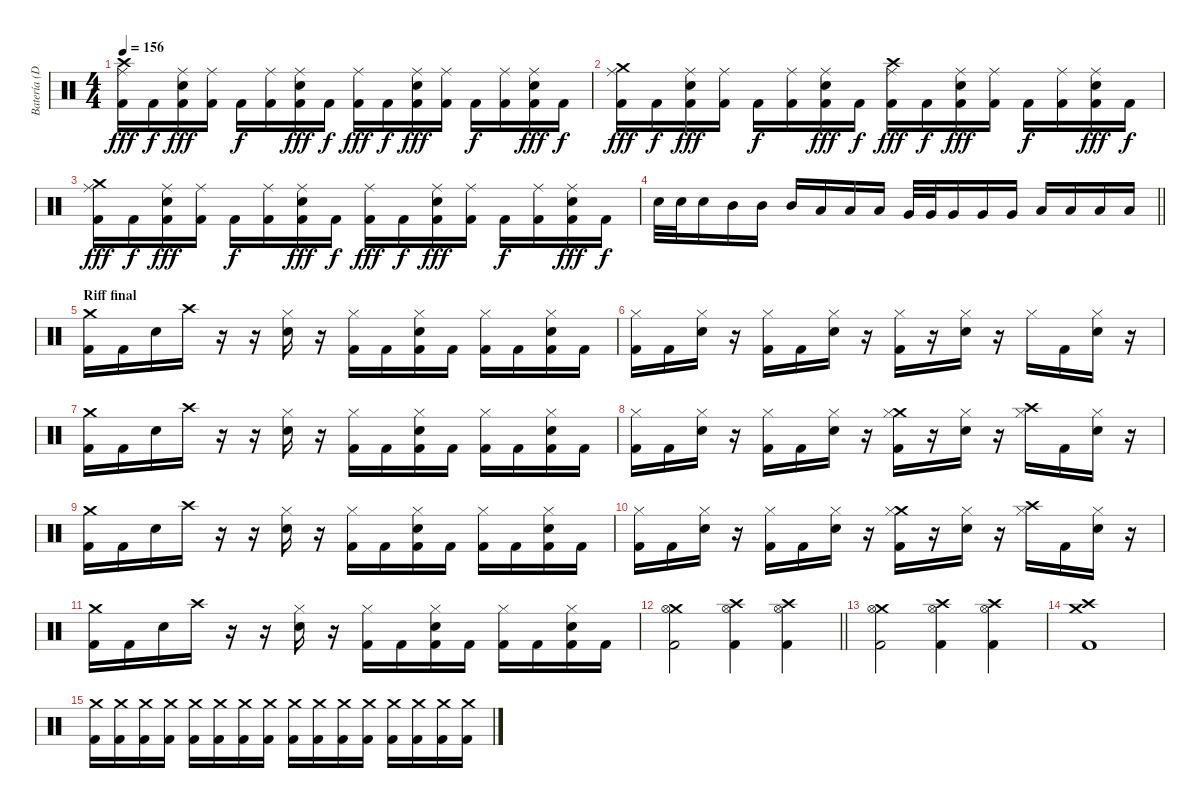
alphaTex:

\track ("Batería (Dani)" "Batería (D") {instrument percussion}
\staff {score}
\articulation defaults
\ts (4 4)
\tempo 156
\clef neutral
\ks c
("Crash high (hit)" "Ride (middle)" "Kick (hit) 2").16{dy fff} "Kick (hit) 2".16{dy f} ("Ride (middle)" "Electric Snare (hit)" "Kick (hit) 2").16{dy fff} ("Ride (middle)" "Kick (hit) 2").16 "Kick (hit) 2".16{dy f} ("Ride (middle)" "Kick (hit) 2").16 ("Ride (middle)" "Electric Snare (hit)" "Kick (hit) 2").16{dy fff} "Kick (hit) 2".16{dy f} ("Ride (middle)" "Kick (hit) 2").16{dy fff} "Kick (hit) 2".16{dy f} ("Ride (middle)" "Electric Snare (hit)" "Kick (hit) 2").16{dy fff} ("Ride (middle)" "Kick (hit) 2").16 "Kick (hit) 2".16{dy f} ("Ride (middle)" "Kick (hit) 2").16 ("Ride (middle)" "Electric Snare (hit)" "Kick (hit) 2").16{dy fff} "Kick (hit) 2".16{dy f} |
("Crash medium (hit)" "Ride (middle)" "Kick (hit) 2").16{dy fff} "Kick (hit) 2".16{dy f} ("Ride (middle)" "Electric Snare (hit)" "Kick (hit) 2").16{dy fff} ("Ride (middle)" "Kick (hit) 2").16 "Kick (hit) 2".16{dy f} ("Ride (middle)" "Kick (hit) 2").16 ("Ride (middle)" "Electric Snare (hit)" "Kick (hit) 2").16{dy fff} "Kick (hit) 2".16{dy f} ("Crash high (hit)" "Ride (middle)" "Kick (hit) 2").16{dy fff} "Kick (hit) 2".16{dy f} ("Ride (middle)" "Electric Snare (hit)" "Kick (hit) 2").16{dy fff} ("Ride (middle)" "Kick (hit) 2").16 "Kick (hit) 2".16{dy f} ("Ride (middle)" "Kick (hit) 2").16 ("Ride (middle)" "Electric Snare (hit)" "Kick (hit) 2").16{dy fff} "Kick (hit) 2".16{dy f} |
("Crash medium (hit)" "Ride (middle)" "Kick (hit) 2").16{dy fff} "Kick (hit) 2".16{dy f} ("Ride (middle)" "Electric Snare (hit)" "Kick (hit) 2").16{dy fff} ("Ride (middle)" "Kick (hit) 2").16 "Kick (hit) 2".16{dy f} ("Ride (middle)" "Kick (hit) 2").16 ("Ride (middle)" "Electric Snare (hit)" "Kick (hit) 2").16{dy fff} "Kick (hit) 2".16{dy f} ("Ride (middle)" "Kick (hit) 2").16{dy fff} "Kick (hit) 2".16{dy f} ("Ride (middle)" "Electric Snare (hit)" "Kick (hit) 2").16{dy fff} ("Ride (middle)" "Kick (hit) 2").16 "Kick (hit) 2".16{dy f} ("Ride (middle)" "Kick (hit) 2").16 ("Ride (middle)" "Electric Snare (hit)" "Kick (hit) 2").16{dy fff} "Kick (hit) 2".16{dy f} |
\barLineRight lightlight "Electric Snare (hit)".32 "Electric Snare (hit)".32 "Electric Snare (hit)".16 "Mid Tom (hit)".16 "Mid Tom (hit)".16 "Mid Tom (hit)".16 "Low Tom (hit)".16 "Low Tom (hit)".16 "Low Tom (hit)".16 "Very Low Tom (hit)".32 "Very Low Tom (hit)".32 "Very Low Tom (hit)".16 "Very Low Tom (hit)".16 "Very Low Tom (hit)".16 "Low Floor Tom (hit)".16 "Low Floor Tom (hit)".16 "Low Floor Tom (hit)".16 "Low Floor Tom (hit)".16
|
\section ("" "Riff final")
("Crash medium (hit)" "Kick (hit) 2").16 "Kick (hit) 2".16 "Electric Snare (hit)".16 "Crash high (hit)".16 r.16 r.16 ("Hi-Hat (closed)" "Electric Snare (hit)").16 r.16 ("Hi-Hat (closed)" "Kick (hit) 2").16 "Kick (hit) 2".16 ("Hi-Hat (closed)" "Electric Snare (hit)" "Kick (hit) 2").16 "Kick (hit) 2".16 ("Hi-Hat (closed)" "Kick (hit) 2").16 "Kick (hit) 2".16 ("Hi-Hat (closed)" "Electric Snare (hit)" "Kick (hit) 2").16 "Kick (hit) 2".16 |
("Hi-Hat (closed)" "Kick (hit) 2").16 "Kick (hit) 2".16 ("Hi-Hat (closed)" "Electric Snare (hit)").16 r.16 ("Hi-Hat (closed)" "Kick (hit) 2").16 "Kick (hit) 2".16 ("Hi-Hat (closed)" "Electric Snare (hit)").16 r.16 ("Hi-Hat (closed)" "Kick (hit) 2").16 r.16 ("Hi-Hat (closed)" "Electric Snare (hit)").16 r.16 "Hi-Hat (closed)".16 "Kick (hit) 2".16 ("Hi-Hat (closed)" "Electric Snare (hit)").16 r.16 |
("Crash medium (hit)" "Kick (hit) 2").16 "Kick (hit) 2".16 "Electric Snare (hit)".16 "Crash high (hit)".16 r.16 r.16 ("Hi-Hat (closed)" "Electric Snare (hit)").16 r.16 ("Hi-Hat (closed)" "Kick (hit) 2").16 "Kick (hit) 2".16 ("Hi-Hat (closed)" "Electric Snare (hit)" "Kick (hit) 2").16 "Kick (hit) 2".16 ("Hi-Hat (closed)" "Kick (hit) 2").16 "Kick (hit) 2".16 ("Hi-Hat (closed)" "Electric Snare (hit)" "Kick (hit) 2").16 "Kick (hit) 2".16 |
("Hi-Hat (closed)" "Kick (hit) 2").16 "Kick (hit) 2".16 ("Hi-Hat (closed)" "Electric Snare (hit)").16 r.16 ("Hi-Hat (closed)" "Kick (hit) 2").16 "Kick (hit) 2".16 ("Hi-Hat (closed)" "Electric Snare (hit)").16 r.16 ("Crash medium (hit)" "Hi-Hat (closed)" "Kick (hit) 2").16 r.16 ("Hi-Hat (closed)" "Electric Snare (hit)").16 r.16 ("Crash high (hit)" "Hi-Hat (closed)").16 "Kick (hit) 2".16 ("Hi-Hat (closed)" "Electric Snare (hit)").16 r.16 |
("Crash medium (hit)" "Kick (hit) 2").16 "Kick (hit) 2".16 "Electric Snare (hit)".16 "Crash high (hit)".16 r.16 r.16 ("Hi-Hat (closed)" "Electric Snare (hit)").16 r.16 ("Hi-Hat (closed)" "Kick (hit) 2").16 "Kick (hit) 2".16 ("Hi-Hat (closed)" "Electric Snare (hit)" "Kick (hit) 2").16 "Kick (hit) 2".16 ("Hi-Hat (closed)" "Kick (hit) 2").16 "Kick (hit) 2".16 ("Hi-Hat (closed)" "Electric Snare (hit)" "Kick (hit) 2").16 "Kick (hit) 2".16 |
("Hi-Hat (closed)" "Kick (hit) 2").16 "Kick (hit) 2".16 ("Hi-Hat (closed)" "Electric Snare (hit)").16 r.16 ("Hi-Hat (closed)" "Kick (hit) 2").16 "Kick (hit) 2".16 ("Hi-Hat (closed)" "Electric Snare (hit)").16 r.16 ("Crash medium (hit)" "Hi-Hat (closed)" "Kick (hit) 2").16 r.16 ("Hi-Hat (closed)" "Electric Snare (hit)").16 r.16 ("Crash high (hit)" "Hi-Hat (closed)").16 "Kick (hit) 2".16 ("Hi-Hat (closed)" "Electric Snare (hit)").16 r.16 |
("Crash medium (hit)" "Kick (hit) 2").16 "Kick (hit) 2".16 "Electric Snare (hit)".16 "Crash high (hit)".16 r.16 r.16 ("Hi-Hat (closed)" "Electric Snare (hit)").16 r.16 ("Hi-Hat (closed)" "Kick (hit) 2").16 "Kick (hit) 2".16 ("Hi-Hat (closed)" "Electric Snare (hit)" "Kick (hit) 2").16 "Kick (hit) 2".16 ("Hi-Hat (closed)" "Kick (hit) 2").16 "Kick (hit) 2".16 ("Hi-Hat (closed)" "Electric Snare (hit)" "Kick (hit) 2").16 "Kick (hit) 2".16 |
\barLineRight lightlight
("Crash medium (hit)" "Hi-Hat (open)" "Kick (hit) 2").2 ("Crash high (hit)" "Hi-Hat (open)" "Kick (hit) 2").4 ("Crash high (hit)" "Hi-Hat (open)" "Kick (hit) 2").4 |
("Crash medium (hit)" "Hi-Hat (open)" "Kick (hit) 2").2 ("Crash high (hit)" "Hi-Hat (open)" "Kick (hit) 2").4 ("Crash high (hit)" "Hi-Hat (open)" "Kick (hit) 2").4 |
("Crash medium (hit)" "Crash high (hit)" "Kick (hit) 2").1 |
("Crash medium (hit)" "Kick (hit) 2").16 ("Crash medium (hit)" "Kick (hit) 2").16 ("Crash medium (hit)" "Kick (hit) 2").16 ("Crash medium (hit)" "Kick (hit) 2").16 ("Crash medium (hit)" "Kick (hit) 2").16 ("Crash medium (hit)" "Kick (hit) 2").16 ("Crash medium (hit)" "Kick (hit) 2").16 ("Crash medium (hit)" "Kick (hit) 2").16 ("Crash medium (hit)" "Kick (hit) 2").16 ("Crash medium (hit)" "Kick (hit) 2").16 ("Crash medium (hit)" "Kick (hit) 2").16 ("Crash medium (hit)" "Kick (hit) 2").16 ("Crash medium (hit)" "Kick (hit) 2").16 ("Crash medium (hit)" "Kick (hit) 2").16 ("Crash medium (hit)" "Kick (hit) 2").16 ("Crash medium (hit)" "Kick (hit) 2").16
